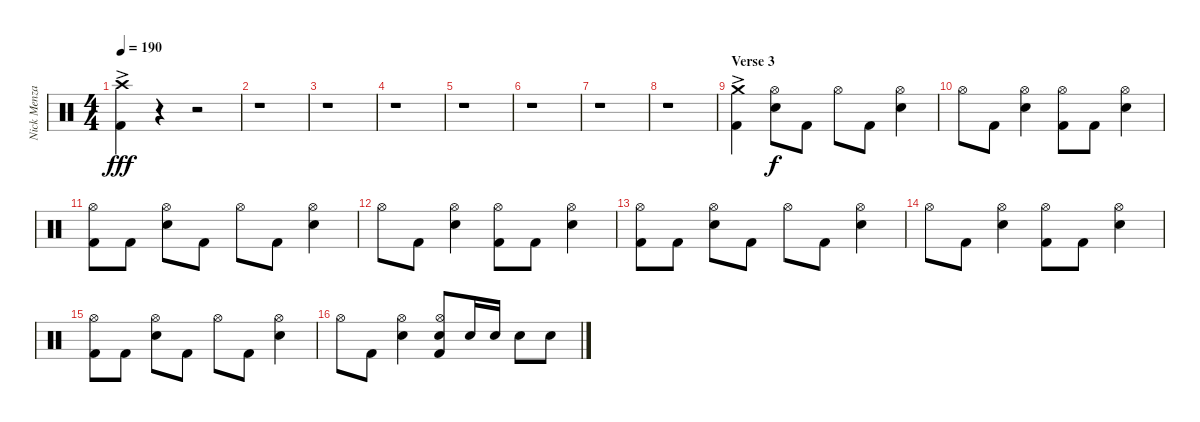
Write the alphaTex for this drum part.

\track ("Nick Menza" "Nick Menza") {instrument percussion}
\staff {score}
\articulation defaults
\ts (4 4)
\tempo 190
\clef neutral
\ks c
("Crash high (hit)"{ac} "Kick (hit) 2").4{dy fff} r.4 r.2 |
r.1 |
r.1 |
r.1 |
r.1 |
r.1 |
r.1 |
r.1 |
\section ("" "Verse 3")
("Crash medium (hit)"{ac} "Kick (hit) 2").4 ("Hi-Hat (open)" "Snare (hit) 2").8{dy f} "Kick (hit) 2".8 "Hi-Hat (open)".8 "Kick (hit) 2".8 ("Hi-Hat (open)" "Snare (hit) 2").4 |
"Hi-Hat (open)".8 "Kick (hit) 2".8 ("Hi-Hat (open)" "Snare (hit) 2").4 ("Hi-Hat (open)" "Kick (hit) 2").8 "Kick (hit) 2".8 ("Hi-Hat (open)" "Snare (hit) 2").4 |
("Hi-Hat (open)" "Kick (hit) 2").8 "Kick (hit) 2".8 ("Hi-Hat (open)" "Snare (hit) 2").8 "Kick (hit) 2".8 "Hi-Hat (open)".8 "Kick (hit) 2".8 ("Hi-Hat (open)" "Snare (hit) 2").4 |
"Hi-Hat (open)".8 "Kick (hit) 2".8 ("Hi-Hat (open)" "Snare (hit) 2").4 ("Hi-Hat (open)" "Kick (hit) 2").8 "Kick (hit) 2".8 ("Hi-Hat (open)" "Snare (hit) 2").4 |
("Hi-Hat (open)" "Kick (hit) 2").8 "Kick (hit) 2".8 ("Hi-Hat (open)" "Snare (hit) 2").8 "Kick (hit) 2".8 "Hi-Hat (open)".8 "Kick (hit) 2".8 ("Hi-Hat (open)" "Snare (hit) 2").4 |
"Hi-Hat (open)".8 "Kick (hit) 2".8 ("Hi-Hat (open)" "Snare (hit) 2").4 ("Hi-Hat (open)" "Kick (hit) 2").8 "Kick (hit) 2".8 ("Hi-Hat (open)" "Snare (hit) 2").4 |
("Hi-Hat (open)" "Kick (hit) 2").8 "Kick (hit) 2".8 ("Hi-Hat (open)" "Snare (hit) 2").8 "Kick (hit) 2".8 "Hi-Hat (open)".8 "Kick (hit) 2".8 ("Hi-Hat (open)" "Snare (hit) 2").4 |
"Hi-Hat (open)".8 "Kick (hit) 2".8 ("Hi-Hat (open)" "Snare (hit) 2").4 ("Hi-Hat (open)" "Snare (hit) 2" "Kick (hit) 2").8 "Snare (hit) 2".16 "Snare (hit) 2".16 "Snare (hit) 2".8 "Snare (hit) 2".8
